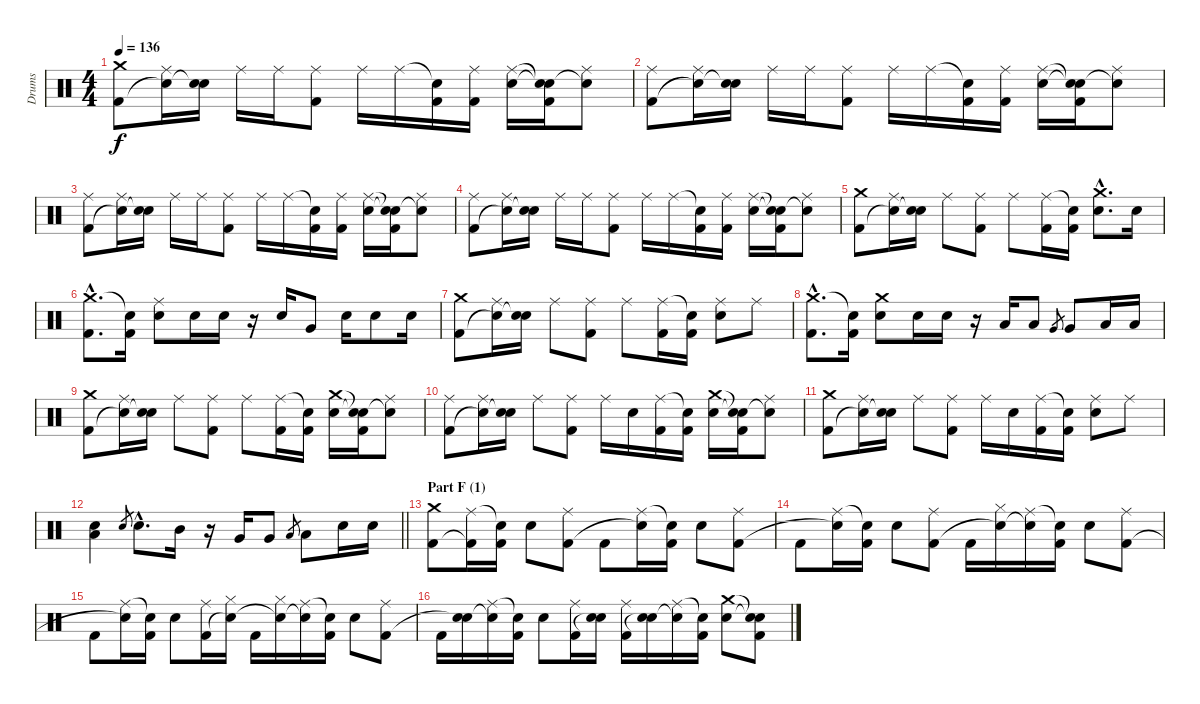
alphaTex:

\track ("Drums" "Drums") {instrument percussion}
\staff {score}
\articulation defaults
\ts (4 4)
\tempo 136
\clef neutral
\ks c
("Crash medium (hit)" "Kick (hit) 2").8{dy f} ("Ride (middle)" "Snare (hit)"{t}).16 ("Electric Snare (hit)" "Snare (hit)"{t}).16 "Ride (middle)".16 "Ride (middle)".16 ("Ride (middle)" "Kick (hit) 2").8 "Ride (middle)".16 "Ride (middle)".16 ("Snare (hit)"{t} "Kick (hit) 2").16 ("Ride (middle)" "Kick (hit) 2").16 ("Ride (middle)" "Electric Snare (hit)").16 ("Snare (hit)"{t} "Snare (hit)"{t} "Kick (hit) 2").16 ("Ride (middle)" "Snare (hit)"{t}).8 |
("Ride (middle)" "Kick (hit) 2").8 ("Ride (middle)" "Snare (hit)"{t}).16 ("Electric Snare (hit)" "Snare (hit)"{t}).16 "Ride (middle)".16 "Ride (middle)".16 ("Ride (middle)" "Kick (hit) 2").8 "Ride (middle)".16 "Ride (middle)".16 ("Snare (hit)"{t} "Kick (hit) 2").16 ("Ride (middle)" "Kick (hit) 2").16 ("Ride (middle)" "Electric Snare (hit)").16 ("Snare (hit)"{t} "Snare (hit)"{t} "Kick (hit) 2").16 ("Ride (middle)" "Snare (hit)"{t}).8 |
("Ride (middle)" "Kick (hit) 2").8 ("Ride (middle)" "Snare (hit)"{t}).16 ("Electric Snare (hit)" "Snare (hit)"{t}).16 "Ride (middle)".16 "Ride (middle)".16 ("Ride (middle)" "Kick (hit) 2").8 "Ride (middle)".16 "Ride (middle)".16 ("Snare (hit)"{t} "Kick (hit) 2").16 ("Ride (middle)" "Kick (hit) 2").16 ("Ride (middle)" "Electric Snare (hit)").16 ("Snare (hit)"{t} "Snare (hit)"{t} "Kick (hit) 2").16 ("Ride (middle)" "Snare (hit)"{t}).8 |
("Ride (middle)" "Kick (hit) 2").8 ("Ride (middle)" "Snare (hit)"{t}).16 ("Electric Snare (hit)" "Snare (hit)"{t}).16 "Ride (middle)".16 "Ride (middle)".16 ("Ride (middle)" "Kick (hit) 2").8 "Ride (middle)".16 "Ride (middle)".16 ("Snare (hit)"{t} "Kick (hit) 2").16 ("Ride (middle)" "Kick (hit) 2").16 ("Ride (middle)" "Electric Snare (hit)").16 ("Snare (hit)"{t} "Snare (hit)"{t} "Kick (hit) 2").16 ("Ride (middle)" "Snare (hit)"{t}).8 |
("Crash medium (hit)" "Kick (hit) 2").8 ("Ride (middle)" "Snare (hit)"{t}).16 ("Electric Snare (hit)" "Snare (hit)"{t}).16 "Ride (middle)".8 ("Ride (middle)" "Kick (hit) 2").8 "Ride (middle)".8 ("Ride (middle)" "Kick (hit) 2").16 ("Snare (hit)"{t} "Kick (hit) 2").16 ("Crash medium (hit)"{hac} "Electric Snare (hit)"{hac}).8{d} "Electric Snare (hit)".16 |
("Crash medium (hit)"{hac} "Kick (hit) 2"{hac}).8{d} ("Snare (hit)"{t} "Kick (hit) 2").16 ("Ride (middle)" "Electric Snare (hit)").8 "Electric Snare (hit)".16 "Electric Snare (hit)".16 r.16 "Electric Snare (hit)".16 "Very Low Tom (hit)".8 "Electric Snare (hit)".16 "Electric Snare (hit)".8 "Electric Snare (hit)".16 |
("Crash medium (hit)" "Kick (hit) 2").8 ("Ride (middle)" "Snare (hit)"{t}).16 ("Electric Snare (hit)" "Snare (hit)"{t}).16 "Ride (middle)".8 ("Ride (middle)" "Kick (hit) 2").8 "Ride (middle)".8 ("Ride (middle)" "Kick (hit) 2").16 ("Snare (hit)"{t} "Kick (hit) 2").16 ("Ride (middle)" "Electric Snare (hit)").8 "Ride (middle)".8 |
("Crash medium (hit)"{hac} "Kick (hit) 2"{hac}).8{d} ("Snare (hit)"{t} "Kick (hit) 2").16 ("Crash medium (hit)" "Electric Snare (hit)").8 "Electric Snare (hit)".16 "Electric Snare (hit)".16 r.16 "Low Tom (hit)".16 "Low Tom (hit)".8 "Very Low Tom (hit)".8{gr} "Very Low Tom (hit)".8 "Low Floor Tom (hit)".16 "Low Floor Tom (hit)".16 |
("Crash medium (hit)" "Kick (hit) 2").8 ("Ride (middle)" "Snare (hit)"{t}).16 ("Electric Snare (hit)" "Snare (hit)"{t}).16 "Ride (middle)".8 ("Ride (middle)" "Kick (hit) 2").8 "Ride (middle)".8 ("Ride (middle)" "Kick (hit) 2").16 ("Snare (hit)"{t} "Kick (hit) 2").16 ("Crash medium (hit)" "Electric Snare (hit)").16 ("Snare (hit)"{t} "Electric Snare (hit)"{t} "Kick (hit) 2").16 ("Ride (middle)" "Snare (hit)"{t}).8 |
("Ride (middle)" "Kick (hit) 2").8 ("Ride (middle)" "Snare (hit)"{t}).16 ("Electric Snare (hit)" "Snare (hit)"{t}).16 "Ride (middle)".8 ("Ride (middle)" "Kick (hit) 2").8 "Ride (middle)".16 "Electric Snare (hit)".16 ("Ride (middle)" "Kick (hit) 2").16 ("Snare (hit)"{t} "Kick (hit) 2").16 ("Crash medium (hit)" "Electric Snare (hit)").16 ("Snare (hit)"{t} "Electric Snare (hit)"{t} "Kick (hit) 2").16 ("Ride (middle)" "Snare (hit)"{t}).8 |
("Crash medium (hit)" "Kick (hit) 2").8 ("Ride (middle)" "Snare (hit)"{t}).16 ("Electric Snare (hit)" "Snare (hit)"{t}).16 "Ride (middle)".8 ("Ride (middle)" "Kick (hit) 2").8 "Ride (middle)".16 "Electric Snare (hit)".16 ("Ride (middle)" "Kick (hit) 2").16 ("Snare (hit)"{t} "Kick (hit) 2").16 ("Ride (middle)" "Electric Snare (hit)").8 "Ride (middle)".8 |
\barLineRight lightlight
("Electric Snare (hit)" "Low Floor Tom (hit)").4 "Electric Snare (hit)".8{gr} "Electric Snare (hit)"{hac}.8{d} "Mid Tom (hit)".16 r.16 "Very Low Tom (hit)".16 "Very Low Tom (hit)".8 "Low Tom (hit)".8{gr} "Low Tom (hit)".8 "Electric Snare (hit)".16 "Electric Snare (hit)".16 |
\section ("" "Part F (1)")
("Crash medium (hit)" "Kick (hit) 2").8 ("Ride (middle)" "Kick (hit) 2"{t}).16 ("Snare (hit)"{t} "Kick (hit) 2").16 "Electric Snare (hit)".8 ("Ride (middle)" "Kick (hit) 2").8 "Kick (hit) 2".8 ("Ride (middle)" "Snare (hit)"{t}).16 ("Snare (hit)"{t} "Kick (hit) 2").16 "Electric Snare (hit)".8 ("Ride (middle)" "Kick (hit) 2").8 |
"Kick (hit) 2".8 ("Ride (middle)" "Snare (hit)"{t}).16 ("Snare (hit)"{t} "Kick (hit) 2").16 "Electric Snare (hit)".8 ("Ride (middle)" "Kick (hit) 2").8 "Kick (hit) 2".16 ("Hi-Hat (closed)" "Snare (hit)"{t}).16 ("Ride (middle)" "Snare (hit)"{t}).16 ("Snare (hit)"{t} "Kick (hit) 2").16 "Electric Snare (hit)".8 ("Ride (middle)" "Kick (hit) 2").8 |
"Kick (hit) 2".8 ("Ride (middle)" "Snare (hit)"{t}).16 ("Snare (hit)"{t} "Kick (hit) 2").16 "Electric Snare (hit)".8 ("Ride (middle)" "Kick (hit) 2").16 ("Hi-Hat (closed)" "Snare (hit)"{t}).16 "Kick (hit) 2".16 ("Hi-Hat (closed)" "Snare (hit)"{t}).16 ("Ride (middle)" "Snare (hit)"{t}).16 ("Snare (hit)"{t} "Kick (hit) 2").16 "Electric Snare (hit)".8 ("Ride (middle)" "Kick (hit) 2").8 |
"Kick (hit) 2".16 ("Electric Snare (hit)" "Snare (hit)"{t}).16 ("Ride (middle)" "Snare (hit)"{t}).16 ("Snare (hit)"{t} "Kick (hit) 2").16 "Electric Snare (hit)".8 ("Ride (middle)" "Kick (hit) 2").16 ("Electric Snare (hit)" "Snare (hit)"{t}).16 ("Ride (middle)" "Kick (hit) 2").16 ("Electric Snare (hit)" "Snare (hit)"{t}).16 ("Ride (middle)" "Snare (hit)"{t}).16 ("Snare (hit)"{t} "Kick (hit) 2").16 ("Crash medium (hit)" "Electric Snare (hit)").8 ("Snare (hit)"{t} "Snare (hit)"{t} "Kick (hit) 2").8
